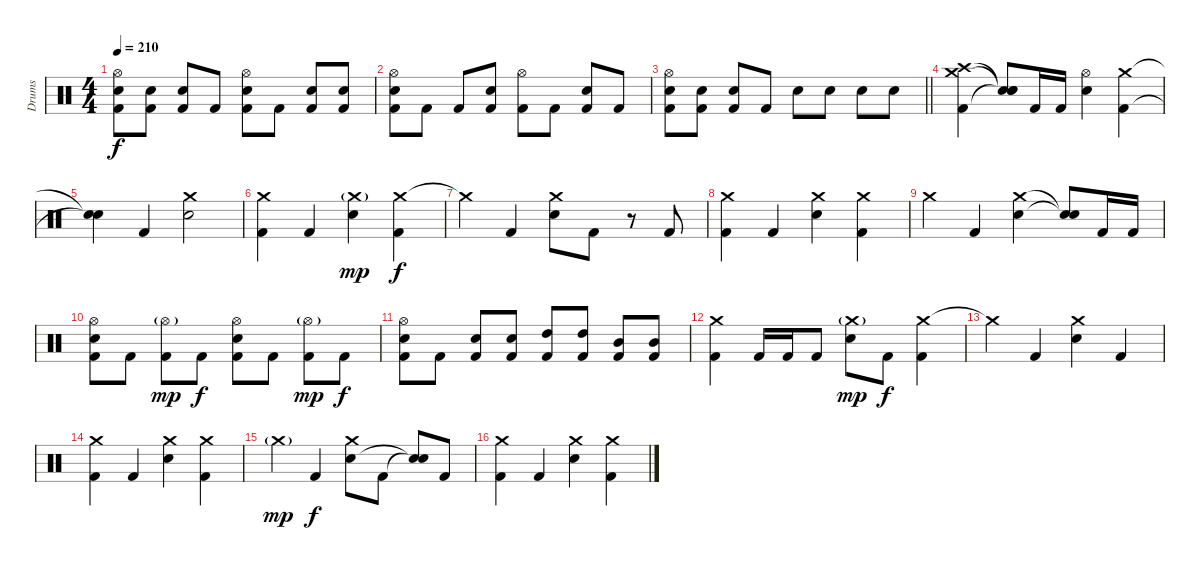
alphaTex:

\track ("Drums" "Drums") {instrument percussion}
\staff {score}
\articulation defaults
\ts (4 4)
\tempo 210
\clef neutral
\ks c
("Hi-Hat (open)" "Electric Snare (hit)" "Kick (hit) 2").8{dy f} ("Electric Snare (hit)" "Kick (hit) 2").8 ("Electric Snare (hit)" "Kick (hit) 2").8 "Kick (hit) 2".8 ("Hi-Hat (open)" "Electric Snare (hit)" "Kick (hit) 2").8 "Kick (hit) 2".8 ("Electric Snare (hit)" "Kick (hit) 2").8 ("Electric Snare (hit)" "Kick (hit) 2").8 |
("Hi-Hat (open)" "Electric Snare (hit)" "Kick (hit) 2").8 "Kick (hit) 2".8 "Kick (hit) 2".8 ("Electric Snare (hit)" "Kick (hit) 2").8 ("Hi-Hat (open)" "Kick (hit) 2").8 "Kick (hit) 2".8 ("Electric Snare (hit)" "Kick (hit) 2").8 "Kick (hit) 2".8 |
\barLineRight lightlight
("Hi-Hat (open)" "Electric Snare (hit)" "Kick (hit) 2").8 ("Electric Snare (hit)" "Kick (hit) 2").8 ("Electric Snare (hit)" "Kick (hit) 2").8 "Kick (hit) 2".8 "Electric Snare (hit)".8 "Electric Snare (hit)".8 "Electric Snare (hit)".8 "Electric Snare (hit)".8 |
("Crash high (hit)" "Crash medium (hit)" "Kick (hit) 2").4 ("Snare (hit)"{t} "Snare (hit)"{t} "Snare (hit)"{t}).8 "Kick (hit) 2".16 "Kick (hit) 2".16 ("Hi-Hat (open)" "Electric Snare (hit)").4 ("Crash medium (hit)" "Kick (hit) 2").4 |
("Snare (hit)"{t} "Snare (hit)"{t}).4 "Kick (hit) 2".4 ("Crash medium (hit)" "Electric Snare (hit)").2 |
("Crash medium (hit)" "Kick (hit) 2").4 "Kick (hit) 2".4 ("Crash medium (hit)"{g} "Electric Snare (hit)").4{dy mp} ("Crash medium (hit)" "Kick (hit) 2").4{dy f} |
"Crash medium (hit)"{t}.4 "Kick (hit) 2".4 ("Crash medium (hit)" "Electric Snare (hit)").8 "Kick (hit) 2".8 r.8 "Kick (hit) 2".8 |
("Crash medium (hit)" "Kick (hit) 2").4 "Kick (hit) 2".4 ("Crash medium (hit)" "Electric Snare (hit)").4 ("Crash medium (hit)" "Kick (hit) 2").4 |
"Crash medium (hit)".4 "Kick (hit) 2".4 ("Crash medium (hit)" "Electric Snare (hit)").4 ("Snare (hit)"{t} "Snare (hit)"{t}).8 "Kick (hit) 2".16 "Kick (hit) 2".16 |
("Hi-Hat (open)" "Electric Snare (hit)" "Kick (hit) 2").8 "Kick (hit) 2".8 ("Hi-Hat (open)"{g} "Kick (hit) 2").8{dy mp} "Kick (hit) 2".8{dy f} ("Hi-Hat (open)" "Electric Snare (hit)" "Kick (hit) 2").8 "Kick (hit) 2".8 ("Hi-Hat (open)"{g} "Kick (hit) 2").8{dy mp} "Kick (hit) 2".8{dy f} |
("Hi-Hat (open)" "Electric Snare (hit)" "Kick (hit) 2").8 "Kick (hit) 2".8 ("Electric Snare (hit)" "Kick (hit) 2").8 ("Electric Snare (hit)" "Kick (hit) 2").8 ("High Tom (hit)" "Kick (hit) 2").8 ("High Tom (hit)" "Kick (hit) 2").8 ("Mid Tom (hit)" "Kick (hit) 2").8 ("Mid Tom (hit)" "Kick (hit) 2").8 |
("Crash medium (hit)" "Kick (hit) 2").4 "Kick (hit) 2".16 "Kick (hit) 2".16 "Kick (hit) 2".8 ("Crash medium (hit)"{g} "Electric Snare (hit)").8{dy mp} "Kick (hit) 2".8{dy f} ("Crash medium (hit)" "Kick (hit) 2").4 |
"Crash medium (hit)"{t}.4 "Kick (hit) 2".4 ("Crash medium (hit)" "Electric Snare (hit)").4 "Kick (hit) 2".4 |
("Crash medium (hit)" "Kick (hit) 2").4 "Kick (hit) 2".4 ("Crash medium (hit)" "Electric Snare (hit)").4 ("Crash medium (hit)" "Kick (hit) 2").4 |
"Crash medium (hit)"{g}.4{dy mp} "Kick (hit) 2".4{dy f} ("Crash medium (hit)" "Electric Snare (hit)").8 "Kick (hit) 2".8 ("Snare (hit)"{t} "Snare (hit)"{t}).8 "Kick (hit) 2".8 |
("Crash medium (hit)" "Kick (hit) 2").4 "Kick (hit) 2".4 ("Crash medium (hit)" "Electric Snare (hit)").4 ("Crash medium (hit)" "Kick (hit) 2").4
